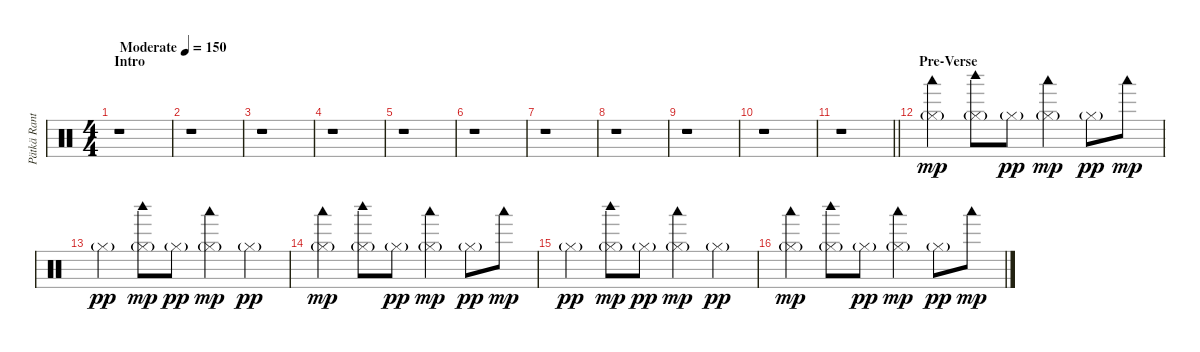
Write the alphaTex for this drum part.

\track ("Pätkä Rantala (Drums)" "Pätkä Rant") {instrument percussion}
\staff {score}
\articulation defaults
\ts (4 4)
\section ("" "Intro")
\tempo (150 "Moderate")
\clef neutral
\ks c
r.1{dy mp} |
r.1 |
r.1 |
r.1 |
r.1 |
r.1 |
r.1 |
r.1 |
r.1 |
r.1 |
\barLineRight lightlight
r.1 |
\section ("" "Pre-Verse")
("Hi-Hat (closed)"{g} "Woodblock low (hit)").4 ("Hi-Hat (closed)"{g} "Woodblock high (hit)").8 "Hi-Hat (closed)"{g}.8{dy pp} ("Hi-Hat (closed)"{g} "Woodblock low (hit)").4{dy mp} "Hi-Hat (closed)"{g}.8{dy pp} "Woodblock low (hit)".8{dy mp} |
"Hi-Hat (closed)"{g}.4{dy pp} ("Hi-Hat (closed)"{g} "Woodblock high (hit)").8{dy mp} "Hi-Hat (closed)"{g}.8{dy pp} ("Hi-Hat (closed)"{g} "Woodblock low (hit)").4{dy mp} "Hi-Hat (closed)"{g}.4{dy pp} |
("Hi-Hat (closed)"{g} "Woodblock low (hit)").4{dy mp} ("Hi-Hat (closed)"{g} "Woodblock high (hit)").8 "Hi-Hat (closed)"{g}.8{dy pp} ("Hi-Hat (closed)"{g} "Woodblock low (hit)").4{dy mp} "Hi-Hat (closed)"{g}.8{dy pp} "Woodblock low (hit)".8{dy mp} |
"Hi-Hat (closed)"{g}.4{dy pp} ("Hi-Hat (closed)"{g} "Woodblock high (hit)").8{dy mp} "Hi-Hat (closed)"{g}.8{dy pp} ("Hi-Hat (closed)"{g} "Woodblock low (hit)").4{dy mp} "Hi-Hat (closed)"{g}.4{dy pp} |
("Hi-Hat (closed)"{g} "Woodblock low (hit)").4{dy mp} ("Hi-Hat (closed)"{g} "Woodblock high (hit)").8 "Hi-Hat (closed)"{g}.8{dy pp} ("Hi-Hat (closed)"{g} "Woodblock low (hit)").4{dy mp} "Hi-Hat (closed)"{g}.8{dy pp} "Woodblock low (hit)".8{dy mp}
